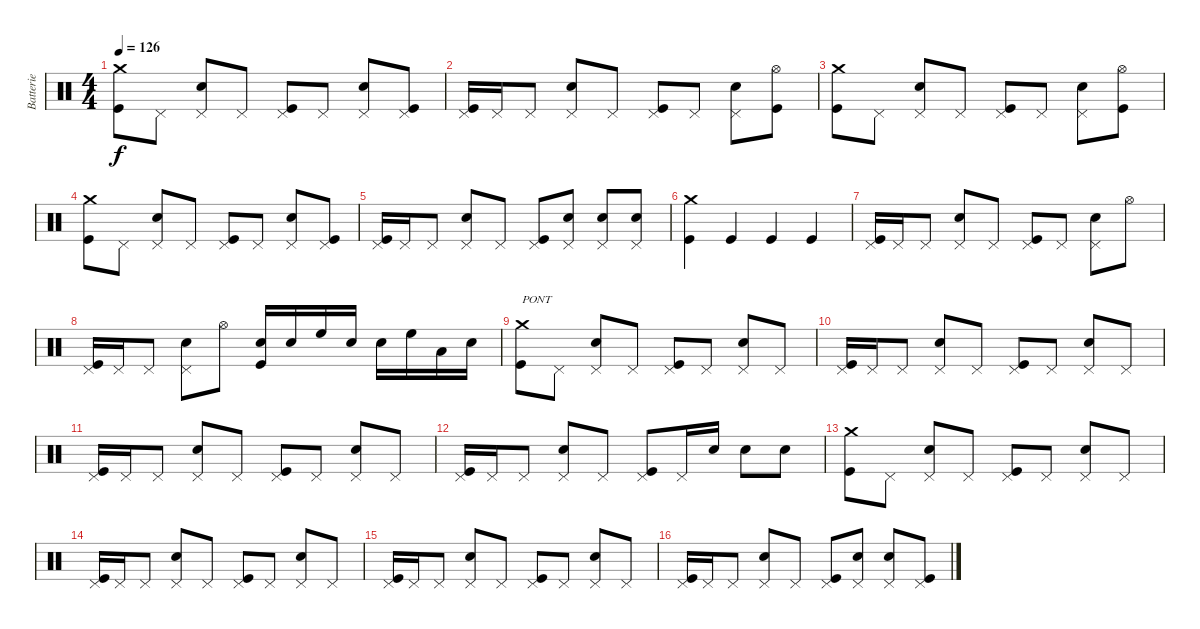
\track ("Batterie" "Batterie") {instrument percussion}
\staff {score}
\articulation defaults
\ts (4 4)
\tempo 126
\clef neutral
\ks c
("Crash medium (hit)" "Kick (hit)").8{dy f} "Pedal Hi-Hat (hit)".8 ("Pedal Hi-Hat (hit)" "Snare (hit) 2").8 "Pedal Hi-Hat (hit)".8 ("Pedal Hi-Hat (hit)" "Kick (hit)").8 "Pedal Hi-Hat (hit)".8 ("Pedal Hi-Hat (hit)" "Snare (hit) 2").8 ("Pedal Hi-Hat (hit)" "Kick (hit)").8 |
("Pedal Hi-Hat (hit)" "Kick (hit)").16 "Pedal Hi-Hat (hit)".16 "Pedal Hi-Hat (hit)".8 ("Pedal Hi-Hat (hit)" "Snare (hit) 2").8 "Pedal Hi-Hat (hit)".8 ("Pedal Hi-Hat (hit)" "Kick (hit)").8 "Pedal Hi-Hat (hit)".8 ("Pedal Hi-Hat (hit)" "Snare (hit) 2").8 ("Hi-Hat (open)" "Kick (hit)").8 |
("Crash medium (hit)" "Kick (hit)").8 "Pedal Hi-Hat (hit)".8 ("Pedal Hi-Hat (hit)" "Snare (hit) 2").8 "Pedal Hi-Hat (hit)".8 ("Pedal Hi-Hat (hit)" "Kick (hit)").8 "Pedal Hi-Hat (hit)".8 ("Pedal Hi-Hat (hit)" "Snare (hit) 2").8 ("Hi-Hat (open)" "Kick (hit)").8 |
("Crash medium (hit)" "Kick (hit)").8 "Pedal Hi-Hat (hit)".8 ("Pedal Hi-Hat (hit)" "Snare (hit) 2").8 "Pedal Hi-Hat (hit)".8 ("Pedal Hi-Hat (hit)" "Kick (hit)").8 "Pedal Hi-Hat (hit)".8 ("Pedal Hi-Hat (hit)" "Snare (hit) 2").8 ("Pedal Hi-Hat (hit)" "Kick (hit)").8 |
("Pedal Hi-Hat (hit)" "Kick (hit)").16 "Pedal Hi-Hat (hit)".16 "Pedal Hi-Hat (hit)".8 ("Pedal Hi-Hat (hit)" "Snare (hit) 2").8 "Pedal Hi-Hat (hit)".8 ("Pedal Hi-Hat (hit)" "Kick (hit)").8 ("Pedal Hi-Hat (hit)" "Snare (hit) 2").8 ("Pedal Hi-Hat (hit)" "Snare (hit) 2").8 ("Pedal Hi-Hat (hit)" "Snare (hit) 2").8 |
("Crash medium (hit)" "Kick (hit)").4 "Kick (hit)".4 "Kick (hit)".4 "Kick (hit)".4 |
("Pedal Hi-Hat (hit)" "Kick (hit)").16 "Pedal Hi-Hat (hit)".16 "Pedal Hi-Hat (hit)".8 ("Pedal Hi-Hat (hit)" "Snare (hit) 2").8 "Pedal Hi-Hat (hit)".8 ("Pedal Hi-Hat (hit)" "Kick (hit)").8 "Pedal Hi-Hat (hit)".8 ("Pedal Hi-Hat (hit)" "Snare (hit) 2").8 "Hi-Hat (open)".8 |
("Pedal Hi-Hat (hit)" "Kick (hit)").16 "Pedal Hi-Hat (hit)".16 "Pedal Hi-Hat (hit)".8 ("Pedal Hi-Hat (hit)" "Snare (hit) 2").8 "Hi-Hat (open)".8 ("Snare (hit) 2" "Kick (hit)").16 "Snare (hit) 2".16 "High Floor Tom (hit)".16 "Snare (hit) 2".16 "Snare (hit) 2".16 "High Floor Tom (hit)".16 "Low Tom (hit)".16 "Snare (hit) 2".16 |
("Crash medium (hit)" "Kick (hit)").8{txt "PONT"} "Pedal Hi-Hat (hit)".8 ("Pedal Hi-Hat (hit)" "Snare (hit) 2").8 "Pedal Hi-Hat (hit)".8 ("Pedal Hi-Hat (hit)" "Kick (hit)").8 "Pedal Hi-Hat (hit)".8 ("Pedal Hi-Hat (hit)" "Snare (hit) 2").8 "Pedal Hi-Hat (hit)".8 |
("Pedal Hi-Hat (hit)" "Kick (hit)").16 "Pedal Hi-Hat (hit)".16 "Pedal Hi-Hat (hit)".8 ("Pedal Hi-Hat (hit)" "Snare (hit) 2").8 "Pedal Hi-Hat (hit)".8 ("Pedal Hi-Hat (hit)" "Kick (hit)").8 "Pedal Hi-Hat (hit)".8 ("Pedal Hi-Hat (hit)" "Snare (hit) 2").8 "Pedal Hi-Hat (hit)".8 |
("Pedal Hi-Hat (hit)" "Kick (hit)").16 "Pedal Hi-Hat (hit)".16 "Pedal Hi-Hat (hit)".8 ("Pedal Hi-Hat (hit)" "Snare (hit) 2").8 "Pedal Hi-Hat (hit)".8 ("Pedal Hi-Hat (hit)" "Kick (hit)").8 "Pedal Hi-Hat (hit)".8 ("Pedal Hi-Hat (hit)" "Snare (hit) 2").8 "Pedal Hi-Hat (hit)".8 |
("Pedal Hi-Hat (hit)" "Kick (hit)").16 "Pedal Hi-Hat (hit)".16 "Pedal Hi-Hat (hit)".8 ("Pedal Hi-Hat (hit)" "Snare (hit) 2").8 "Pedal Hi-Hat (hit)".8 ("Pedal Hi-Hat (hit)" "Kick (hit)").8 "Pedal Hi-Hat (hit)".16 "Snare (hit) 2".16 "Snare (hit) 2".8 "Snare (hit) 2".8 |
("Crash medium (hit)" "Kick (hit)").8 "Pedal Hi-Hat (hit)".8 ("Pedal Hi-Hat (hit)" "Snare (hit) 2").8 "Pedal Hi-Hat (hit)".8 ("Pedal Hi-Hat (hit)" "Kick (hit)").8 "Pedal Hi-Hat (hit)".8 ("Pedal Hi-Hat (hit)" "Snare (hit) 2").8 "Pedal Hi-Hat (hit)".8 |
("Pedal Hi-Hat (hit)" "Kick (hit)").16 "Pedal Hi-Hat (hit)".16 "Pedal Hi-Hat (hit)".8 ("Pedal Hi-Hat (hit)" "Snare (hit) 2").8 "Pedal Hi-Hat (hit)".8 ("Pedal Hi-Hat (hit)" "Kick (hit)").8 "Pedal Hi-Hat (hit)".8 ("Pedal Hi-Hat (hit)" "Snare (hit) 2").8 "Pedal Hi-Hat (hit)".8 |
("Pedal Hi-Hat (hit)" "Kick (hit)").16 "Pedal Hi-Hat (hit)".16 "Pedal Hi-Hat (hit)".8 ("Pedal Hi-Hat (hit)" "Snare (hit) 2").8 "Pedal Hi-Hat (hit)".8 ("Pedal Hi-Hat (hit)" "Kick (hit)").8 "Pedal Hi-Hat (hit)".8 ("Pedal Hi-Hat (hit)" "Snare (hit) 2").8 "Pedal Hi-Hat (hit)".8 |
("Pedal Hi-Hat (hit)" "Kick (hit)").16 "Pedal Hi-Hat (hit)".16 "Pedal Hi-Hat (hit)".8 ("Pedal Hi-Hat (hit)" "Snare (hit) 2").8 "Pedal Hi-Hat (hit)".8 ("Pedal Hi-Hat (hit)" "Kick (hit)").8 ("Pedal Hi-Hat (hit)" "Snare (hit) 2").8 ("Pedal Hi-Hat (hit)" "Snare (hit) 2").8 ("Pedal Hi-Hat (hit)" "Kick (hit)").8
